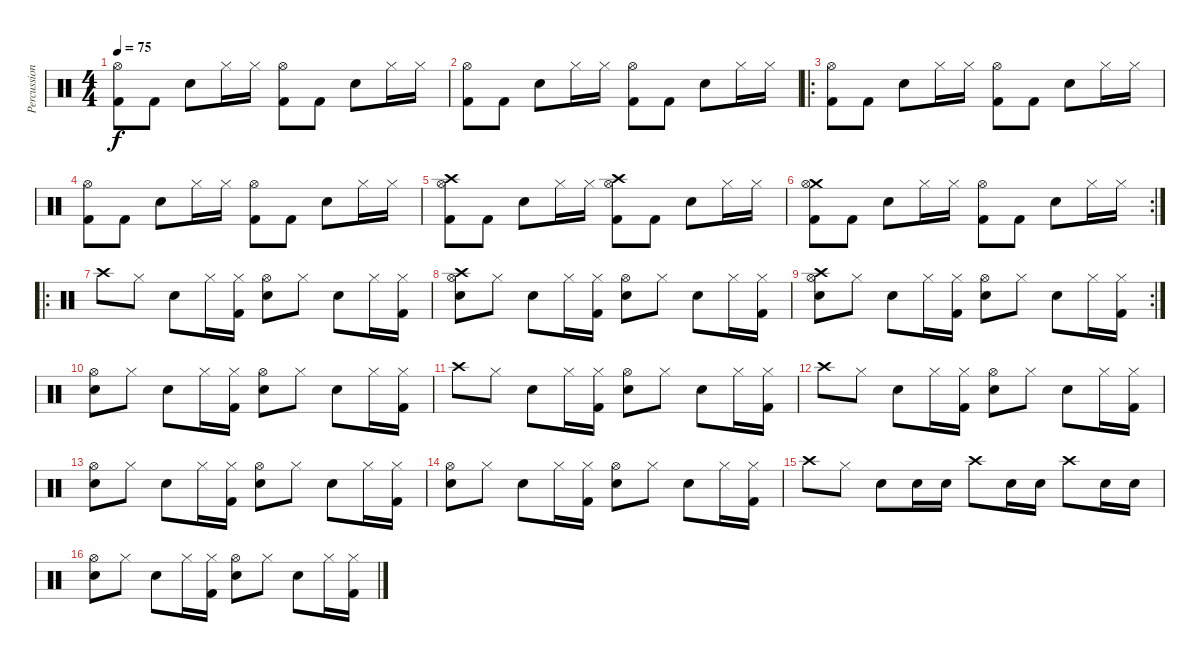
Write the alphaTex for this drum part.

\track ("Percussion" "Percussion") {instrument percussion}
\staff {score}
\articulation defaults
\ts (4 4)
\tempo 75
\clef neutral
\ks c
("Hi-Hat (open)" "Kick (hit) 2").8{dy f} "Kick (hit) 2".8 "Electric Snare (hit)".8 "Hi-Hat (closed)".16 "Hi-Hat (closed)".16 ("Hi-Hat (open)" "Kick (hit) 2").8 "Kick (hit) 2".8 "Electric Snare (hit)".8 "Hi-Hat (closed)".16 "Hi-Hat (closed)".16 |
("Hi-Hat (open)" "Kick (hit) 2").8 "Kick (hit) 2".8 "Electric Snare (hit)".8 "Hi-Hat (closed)".16 "Hi-Hat (closed)".16 ("Hi-Hat (open)" "Kick (hit) 2").8 "Kick (hit) 2".8 "Electric Snare (hit)".8 "Hi-Hat (closed)".16 "Hi-Hat (closed)".16 |
\ro
("Hi-Hat (open)" "Kick (hit) 2").8 "Kick (hit) 2".8 "Electric Snare (hit)".8 "Hi-Hat (closed)".16 "Hi-Hat (closed)".16 ("Hi-Hat (open)" "Kick (hit) 2").8 "Kick (hit) 2".8 "Electric Snare (hit)".8 "Hi-Hat (closed)".16 "Hi-Hat (closed)".16 |
("Hi-Hat (open)" "Kick (hit) 2").8 "Kick (hit) 2".8 "Electric Snare (hit)".8 "Hi-Hat (closed)".16 "Hi-Hat (closed)".16 ("Hi-Hat (open)" "Kick (hit) 2").8 "Kick (hit) 2".8 "Electric Snare (hit)".8 "Hi-Hat (closed)".16 "Hi-Hat (closed)".16 |
("Crash high (hit)" "Hi-Hat (open)" "Kick (hit) 2").8 "Kick (hit) 2".8 "Electric Snare (hit)".8 "Hi-Hat (closed)".16 "Hi-Hat (closed)".16 ("Crash high (hit)" "Hi-Hat (open)" "Kick (hit) 2").8 "Kick (hit) 2".8 "Electric Snare (hit)".8 "Hi-Hat (closed)".16 "Hi-Hat (closed)".16 |
\rc 2
("Crash medium (hit)" "Hi-Hat (open)" "Kick (hit) 2").8 "Kick (hit) 2".8 "Electric Snare (hit)".8 "Hi-Hat (closed)".16 "Hi-Hat (closed)".16 ("Hi-Hat (open)" "Kick (hit) 2").8 "Kick (hit) 2".8 "Electric Snare (hit)".8 "Hi-Hat (closed)".16 "Hi-Hat (closed)".16 |
\ro "Crash high (hit)".8 "Hi-Hat (closed)".8 "Electric Snare (hit)".8 "Hi-Hat (closed)".16
("Hi-Hat (closed)" "Kick (hit) 2").16 ("Hi-Hat (open)" "Electric Snare (hit)").8 "Hi-Hat (closed)".8 "Electric Snare (hit)".8 "Hi-Hat (closed)".16 ("Hi-Hat (closed)" "Kick (hit) 2").16 |
("Crash high (hit)" "Hi-Hat (open)" "Electric Snare (hit)").8 "Hi-Hat (closed)".8 "Electric Snare (hit)".8 "Hi-Hat (closed)".16 ("Hi-Hat (closed)" "Kick (hit) 2").16 ("Hi-Hat (open)" "Electric Snare (hit)").8 "Hi-Hat (closed)".8 "Electric Snare (hit)".8 "Hi-Hat (closed)".16 ("Hi-Hat (closed)" "Kick (hit) 2").16 |
\rc 2
("Crash high (hit)" "Hi-Hat (open)" "Electric Snare (hit)").8 "Hi-Hat (closed)".8 "Electric Snare (hit)".8 "Hi-Hat (closed)".16 ("Hi-Hat (closed)" "Kick (hit) 2").16 ("Hi-Hat (open)" "Electric Snare (hit)").8 "Hi-Hat (closed)".8 "Electric Snare (hit)".8 "Hi-Hat (closed)".16 ("Hi-Hat (closed)" "Kick (hit) 2").16 |
("Hi-Hat (open)" "Electric Snare (hit)").8 "Hi-Hat (closed)".8 "Electric Snare (hit)".8 "Hi-Hat (closed)".16 ("Hi-Hat (closed)" "Kick (hit) 2").16 ("Hi-Hat (open)" "Electric Snare (hit)").8 "Hi-Hat (closed)".8 "Electric Snare (hit)".8 "Hi-Hat (closed)".16 ("Hi-Hat (closed)" "Kick (hit) 2").16 |
"Crash high (hit)".8 "Hi-Hat (closed)".8 "Electric Snare (hit)".8 "Hi-Hat (closed)".16 ("Hi-Hat (closed)" "Kick (hit) 2").16 ("Hi-Hat (open)" "Electric Snare (hit)").8 "Hi-Hat (closed)".8 "Electric Snare (hit)".8 "Hi-Hat (closed)".16 ("Hi-Hat (closed)" "Kick (hit) 2").16 |
"Crash high (hit)".8 "Hi-Hat (closed)".8 "Electric Snare (hit)".8 "Hi-Hat (closed)".16 ("Hi-Hat (closed)" "Kick (hit) 2").16 ("Hi-Hat (open)" "Electric Snare (hit)").8 "Hi-Hat (closed)".8 "Electric Snare (hit)".8 "Hi-Hat (closed)".16 ("Hi-Hat (closed)" "Kick (hit) 2").16 |
("Hi-Hat (open)" "Electric Snare (hit)").8 "Hi-Hat (closed)".8 "Electric Snare (hit)".8 "Hi-Hat (closed)".16 ("Hi-Hat (closed)" "Kick (hit) 2").16 ("Hi-Hat (open)" "Electric Snare (hit)").8 "Hi-Hat (closed)".8 "Electric Snare (hit)".8 "Hi-Hat (closed)".16 ("Hi-Hat (closed)" "Kick (hit) 2").16 |
("Hi-Hat (open)" "Electric Snare (hit)").8 "Hi-Hat (closed)".8 "Electric Snare (hit)".8 "Hi-Hat (closed)".16 ("Hi-Hat (closed)" "Kick (hit) 2").16 ("Hi-Hat (open)" "Electric Snare (hit)").8 "Hi-Hat (closed)".8 "Electric Snare (hit)".8 "Hi-Hat (closed)".16 ("Hi-Hat (closed)" "Kick (hit) 2").16 |
"Crash high (hit)".8 "Hi-Hat (closed)".8 "Electric Snare (hit)".8 "Electric Snare (hit)".16 "Electric Snare (hit)".16 "Crash high (hit)".8 "Electric Snare (hit)".16 "Electric Snare (hit)".16 "Crash high (hit)".8 "Electric Snare (hit)".16 "Electric Snare (hit)".16 |
("Hi-Hat (open)" "Electric Snare (hit)").8 "Hi-Hat (closed)".8 "Electric Snare (hit)".8 "Hi-Hat (closed)".16 ("Hi-Hat (closed)" "Kick (hit) 2").16 ("Hi-Hat (open)" "Electric Snare (hit)").8 "Hi-Hat (closed)".8 "Electric Snare (hit)".8 "Hi-Hat (closed)".16 ("Hi-Hat (closed)" "Kick (hit) 2").16
